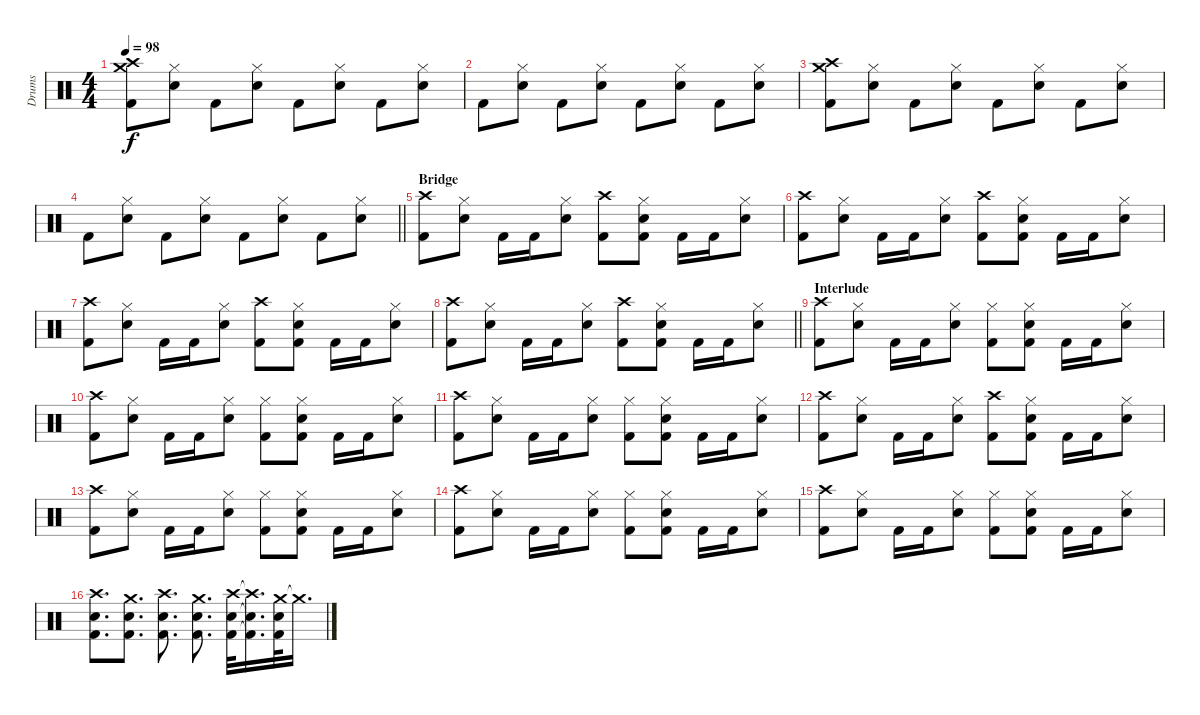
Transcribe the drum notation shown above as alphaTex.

\track ("Drums" "Drums") {instrument percussion}
\staff {score}
\articulation defaults
\ts (4 4)
\tempo 98
\clef neutral
\ks c
("Crash medium (hit)" "Crash high (hit)" "Kick (hit) 2").8{dy f} ("Hi-Hat (closed)" "Snare (hit) 2").8 "Kick (hit) 2".8 ("Hi-Hat (closed)" "Snare (hit) 2").8 "Kick (hit) 2".8 ("Hi-Hat (closed)" "Snare (hit) 2").8 "Kick (hit) 2".8 ("Hi-Hat (closed)" "Snare (hit) 2").8 |
"Kick (hit) 2".8 ("Hi-Hat (closed)" "Snare (hit) 2").8 "Kick (hit) 2".8 ("Hi-Hat (closed)" "Snare (hit) 2").8 "Kick (hit) 2".8 ("Hi-Hat (closed)" "Snare (hit) 2").8 "Kick (hit) 2".8 ("Hi-Hat (closed)" "Snare (hit) 2").8 |
("Crash medium (hit)" "Crash high (hit)" "Kick (hit) 2").8 ("Hi-Hat (closed)" "Snare (hit) 2").8 "Kick (hit) 2".8 ("Hi-Hat (closed)" "Snare (hit) 2").8 "Kick (hit) 2".8 ("Hi-Hat (closed)" "Snare (hit) 2").8 "Kick (hit) 2".8 ("Hi-Hat (closed)" "Snare (hit) 2").8 |
\barLineRight lightlight "Kick (hit) 2".8
("Hi-Hat (closed)" "Snare (hit) 2").8 "Kick (hit) 2".8 ("Hi-Hat (closed)" "Snare (hit) 2").8 "Kick (hit) 2".8 ("Hi-Hat (closed)" "Snare (hit) 2").8 "Kick (hit) 2".8 ("Hi-Hat (closed)" "Snare (hit) 2").8 |
\section ("" "Bridge")
("Crash high (hit)" "Kick (hit) 2").8 ("Hi-Hat (closed)" "Snare (hit) 2").8 "Kick (hit) 2".16 "Kick (hit) 2".16 ("Hi-Hat (closed)" "Snare (hit) 2").8 ("Crash high (hit)" "Kick (hit) 2").8 ("Hi-Hat (closed)" "Snare (hit) 2" "Kick (hit) 2").8 "Kick (hit) 2".16 "Kick (hit) 2".16 ("Hi-Hat (closed)" "Snare (hit) 2").8 |
("Crash high (hit)" "Kick (hit) 2").8 ("Hi-Hat (closed)" "Snare (hit) 2").8 "Kick (hit) 2".16 "Kick (hit) 2".16 ("Hi-Hat (closed)" "Snare (hit) 2").8 ("Crash high (hit)" "Kick (hit) 2").8 ("Hi-Hat (closed)" "Snare (hit) 2" "Kick (hit) 2").8 "Kick (hit) 2".16 "Kick (hit) 2".16 ("Hi-Hat (closed)" "Snare (hit) 2").8 |
("Crash high (hit)" "Kick (hit) 2").8 ("Hi-Hat (closed)" "Snare (hit) 2").8 "Kick (hit) 2".16 "Kick (hit) 2".16 ("Hi-Hat (closed)" "Snare (hit) 2").8 ("Crash high (hit)" "Kick (hit) 2").8 ("Hi-Hat (closed)" "Snare (hit) 2" "Kick (hit) 2").8 "Kick (hit) 2".16 "Kick (hit) 2".16 ("Hi-Hat (closed)" "Snare (hit) 2").8 |
\barLineRight lightlight
("Crash high (hit)" "Kick (hit) 2").8 ("Hi-Hat (closed)" "Snare (hit) 2").8 "Kick (hit) 2".16 "Kick (hit) 2".16 ("Hi-Hat (closed)" "Snare (hit) 2").8 ("Crash high (hit)" "Kick (hit) 2").8 ("Hi-Hat (closed)" "Snare (hit) 2" "Kick (hit) 2").8 "Kick (hit) 2".16 "Kick (hit) 2".16 ("Hi-Hat (closed)" "Snare (hit) 2").8 |
\section ("" "Interlude")
("Crash high (hit)" "Kick (hit) 2").8 ("Hi-Hat (closed)" "Snare (hit) 2").8 "Kick (hit) 2".16 "Kick (hit) 2".16 ("Hi-Hat (closed)" "Snare (hit) 2").8 ("Hi-Hat (closed)" "Kick (hit) 2").8 ("Hi-Hat (closed)" "Snare (hit) 2" "Kick (hit) 2").8 "Kick (hit) 2".16 "Kick (hit) 2".16 ("Hi-Hat (closed)" "Snare (hit) 2").8 |
("Crash high (hit)" "Kick (hit) 2").8 ("Hi-Hat (closed)" "Snare (hit) 2").8 "Kick (hit) 2".16 "Kick (hit) 2".16 ("Hi-Hat (closed)" "Snare (hit) 2").8 ("Hi-Hat (closed)" "Kick (hit) 2").8 ("Hi-Hat (closed)" "Snare (hit) 2" "Kick (hit) 2").8 "Kick (hit) 2".16 "Kick (hit) 2".16 ("Hi-Hat (closed)" "Snare (hit) 2").8 |
("Crash high (hit)" "Kick (hit) 2").8 ("Hi-Hat (closed)" "Snare (hit) 2").8 "Kick (hit) 2".16 "Kick (hit) 2".16 ("Hi-Hat (closed)" "Snare (hit) 2").8 ("Hi-Hat (closed)" "Kick (hit) 2").8 ("Hi-Hat (closed)" "Snare (hit) 2" "Kick (hit) 2").8 "Kick (hit) 2".16 "Kick (hit) 2".16 ("Hi-Hat (closed)" "Snare (hit) 2").8 |
("Crash high (hit)" "Kick (hit) 2").8 ("Hi-Hat (closed)" "Snare (hit) 2").8 "Kick (hit) 2".16 "Kick (hit) 2".16 ("Hi-Hat (closed)" "Snare (hit) 2").8 ("Crash high (hit)" "Kick (hit) 2").8 ("Hi-Hat (closed)" "Snare (hit) 2" "Kick (hit) 2").8 "Kick (hit) 2".16 "Kick (hit) 2".16 ("Hi-Hat (closed)" "Snare (hit) 2").8 |
("Crash high (hit)" "Kick (hit) 2").8 ("Hi-Hat (closed)" "Snare (hit) 2").8 "Kick (hit) 2".16 "Kick (hit) 2".16 ("Hi-Hat (closed)" "Snare (hit) 2").8 ("Hi-Hat (closed)" "Kick (hit) 2").8 ("Hi-Hat (closed)" "Snare (hit) 2" "Kick (hit) 2").8 "Kick (hit) 2".16 "Kick (hit) 2".16 ("Hi-Hat (closed)" "Snare (hit) 2").8 |
("Crash high (hit)" "Kick (hit) 2").8 ("Hi-Hat (closed)" "Snare (hit) 2").8 "Kick (hit) 2".16 "Kick (hit) 2".16 ("Hi-Hat (closed)" "Snare (hit) 2").8 ("Hi-Hat (closed)" "Kick (hit) 2").8 ("Hi-Hat (closed)" "Snare (hit) 2" "Kick (hit) 2").8 "Kick (hit) 2".16 "Kick (hit) 2".16 ("Hi-Hat (closed)" "Snare (hit) 2").8 |
("Crash high (hit)" "Kick (hit) 2").8 ("Hi-Hat (closed)" "Snare (hit) 2").8 "Kick (hit) 2".16 "Kick (hit) 2".16 ("Hi-Hat (closed)" "Snare (hit) 2").8 ("Hi-Hat (closed)" "Kick (hit) 2").8 ("Hi-Hat (closed)" "Snare (hit) 2" "Kick (hit) 2").8 "Kick (hit) 2".16 "Kick (hit) 2".16 ("Hi-Hat (closed)" "Snare (hit) 2").8 |
("Crash high (hit)" "Snare (hit) 2" "Kick (hit) 2").8{d} ("Crash medium (hit)" "Snare (hit) 2" "Kick (hit) 2").8{d} ("Crash high (hit)" "Snare (hit) 2" "Kick (hit) 2").8{d} ("Crash medium (hit)" "Snare (hit) 2" "Kick (hit) 2").8{d} ("Crash high (hit)" "Snare (hit) 2" "Kick (hit) 2").32 ("Crash high (hit)"{t} "Snare (hit) 2"{t} "Kick (hit) 2"{t}).16{d} ("Crash medium (hit)" "Snare (hit) 2" "Kick (hit) 2").32 "Crash medium (hit)"{t}.16{d}
